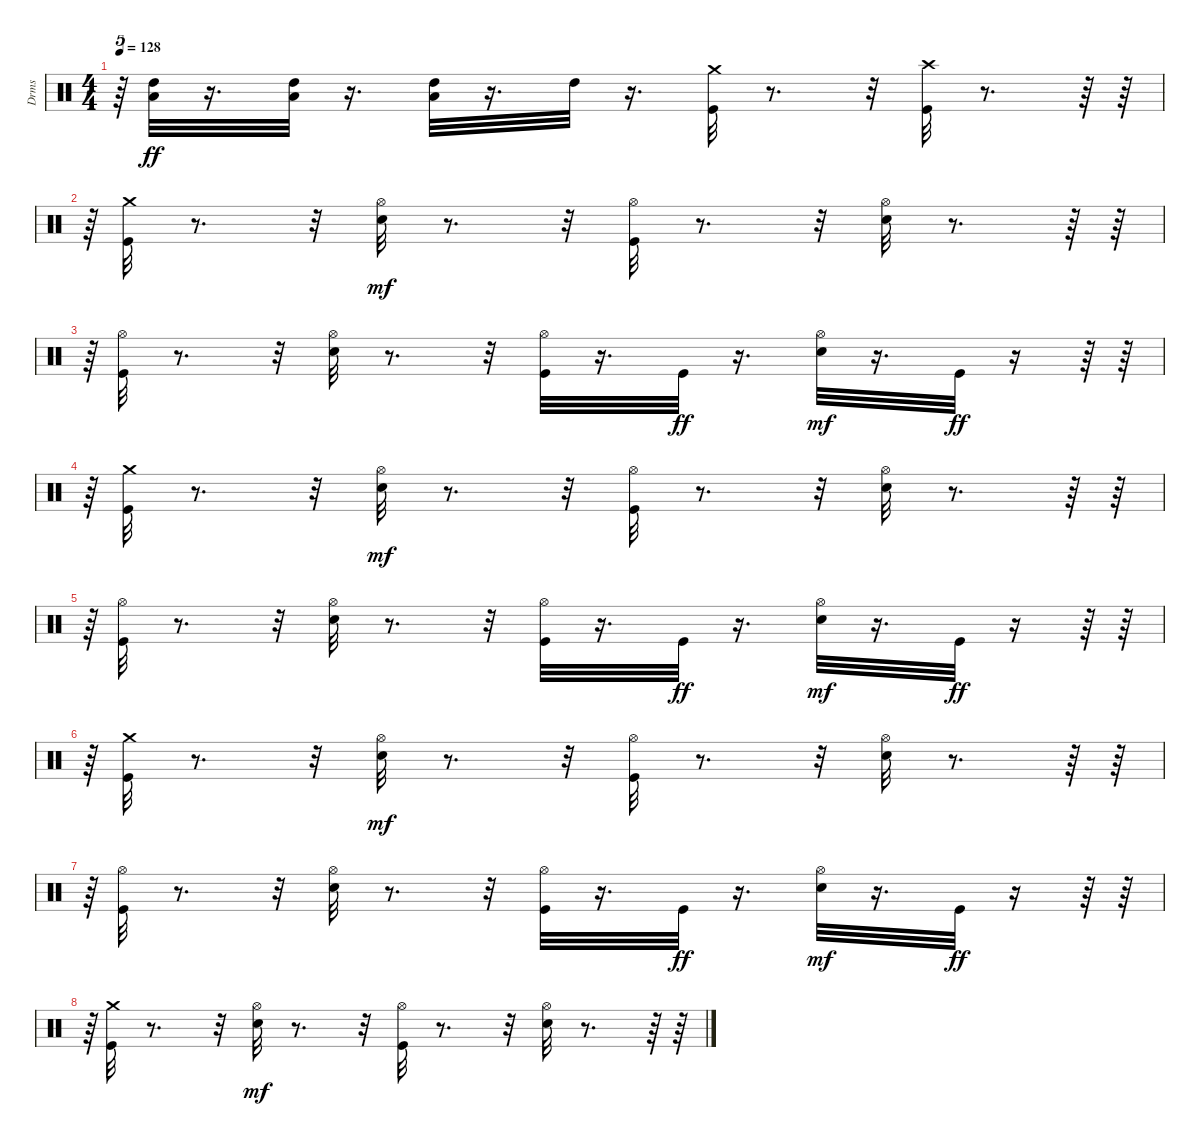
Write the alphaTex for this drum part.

\track ("Drms" "Drms") {instrument percussion}
\staff {score}
\articulation defaults
\ts (4 4)
\tempo 128
\clef neutral
\ks c
r.64{tu (5 4) dy mf} ("Low Tom (hit)" "High Tom (hit)").32{dy ff} r.16{d} ("Low Tom (hit)" "High Tom (hit)").32 r.16{d} ("Low Tom (hit)" "High Tom (hit)").32 r.16{d} "High Tom (hit)".32 r.16{d} ("Crash medium (hit)" "Kick (hit)").32 r.8{d} r.32 ("Crash high (hit)" "Kick (hit)").32 r.8{d} r.64 r.64 |
r.64{tu (5 4)} ("Kick (hit)" "Crash medium (hit)").32 r.8{d} r.32 ("Snare (hit) 2" "Hi-Hat (open)").32{dy mf} r.8{d} r.32 ("Kick (hit)" "Hi-Hat (open)").32 r.8{d} r.32 ("Snare (hit) 2" "Hi-Hat (open)").32 r.8{d} r.64 r.64 |
r.64{tu (5 4)} ("Kick (hit)" "Hi-Hat (open)").32 r.8{d} r.32 ("Snare (hit) 2" "Hi-Hat (open)").32 r.8{d} r.32 ("Kick (hit)" "Hi-Hat (open)").32 r.16{d} "Kick (hit)".32{dy ff} r.16{d} ("Snare (hit) 2" "Hi-Hat (open)").32{dy mf} r.16{d} "Kick (hit)".32{dy ff} r.16 r.64 r.64 |
r.64{tu (5 4)} ("Kick (hit)" "Crash medium (hit)").32 r.8{d} r.32 ("Snare (hit) 2" "Hi-Hat (open)").32{dy mf} r.8{d} r.32 ("Kick (hit)" "Hi-Hat (open)").32 r.8{d} r.32 ("Snare (hit) 2" "Hi-Hat (open)").32 r.8{d} r.64 r.64 |
r.64{tu (5 4)} ("Kick (hit)" "Hi-Hat (open)").32 r.8{d} r.32 ("Snare (hit) 2" "Hi-Hat (open)").32 r.8{d} r.32 ("Kick (hit)" "Hi-Hat (open)").32 r.16{d} "Kick (hit)".32{dy ff} r.16{d} ("Snare (hit) 2" "Hi-Hat (open)").32{dy mf} r.16{d} "Kick (hit)".32{dy ff} r.16 r.64 r.64 |
r.64{tu (5 4)} ("Kick (hit)" "Crash medium (hit)").32 r.8{d} r.32 ("Snare (hit) 2" "Hi-Hat (open)").32{dy mf} r.8{d} r.32 ("Kick (hit)" "Hi-Hat (open)").32 r.8{d} r.32 ("Snare (hit) 2" "Hi-Hat (open)").32 r.8{d} r.64 r.64 |
r.64{tu (5 4)} ("Kick (hit)" "Hi-Hat (open)").32 r.8{d} r.32 ("Snare (hit) 2" "Hi-Hat (open)").32 r.8{d} r.32 ("Kick (hit)" "Hi-Hat (open)").32 r.16{d} "Kick (hit)".32{dy ff} r.16{d} ("Snare (hit) 2" "Hi-Hat (open)").32{dy mf} r.16{d} "Kick (hit)".32{dy ff} r.16 r.64 r.64 |
r.64{tu (5 4)} ("Kick (hit)" "Crash medium (hit)").32 r.8{d} r.32 ("Snare (hit) 2" "Hi-Hat (open)").32{dy mf} r.8{d} r.32 ("Kick (hit)" "Hi-Hat (open)").32 r.8{d} r.32 ("Snare (hit) 2" "Hi-Hat (open)").32 r.8{d} r.64 r.64
